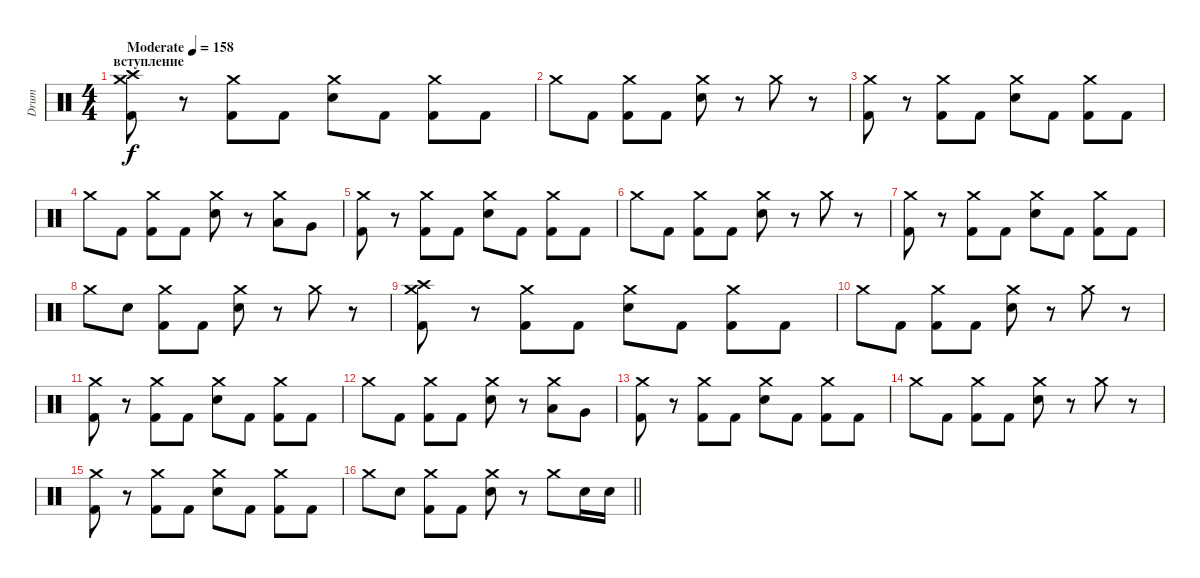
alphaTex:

\track ("Drum" "Drum") {instrument percussion}
\staff {score}
\articulation defaults
\ts (4 4)
\section ("" "вступление")
\tempo (158 "Moderate")
\clef neutral
\ks c
("Crash medium (hit)" "Crash high (hit)" "Kick (hit) 2").8{dy f} r.8 ("Crash medium (hit)" "Kick (hit) 2").8 "Kick (hit) 2".8 ("Crash medium (hit)" "Electric Snare (hit)").8 "Kick (hit) 2".8 ("Crash medium (hit)" "Kick (hit) 2").8 "Kick (hit) 2".8 |
"Crash medium (hit)".8 "Kick (hit) 2".8 ("Crash medium (hit)" "Kick (hit) 2").8 "Kick (hit) 2".8 ("Crash medium (hit)" "Electric Snare (hit)").8 r.8 "Crash medium (hit)".8 r.8 |
("Crash medium (hit)" "Kick (hit) 2").8 r.8 ("Crash medium (hit)" "Kick (hit) 2").8 "Kick (hit) 2".8 ("Crash medium (hit)" "Electric Snare (hit)").8 "Kick (hit) 2".8 ("Crash medium (hit)" "Kick (hit) 2").8 "Kick (hit) 2".8 |
"Crash medium (hit)".8 "Kick (hit) 2".8 ("Crash medium (hit)" "Kick (hit) 2").8 "Kick (hit) 2".8 ("Crash medium (hit)" "Electric Snare (hit)").8 r.8 ("Crash medium (hit)" "Low Tom (hit)").8 "Very Low Tom (hit)".8 |
("Crash medium (hit)" "Kick (hit) 2").8 r.8 ("Crash medium (hit)" "Kick (hit) 2").8 "Kick (hit) 2".8 ("Crash medium (hit)" "Electric Snare (hit)").8 "Kick (hit) 2".8 ("Crash medium (hit)" "Kick (hit) 2").8 "Kick (hit) 2".8 |
"Crash medium (hit)".8 "Kick (hit) 2".8 ("Crash medium (hit)" "Kick (hit) 2").8 "Kick (hit) 2".8 ("Crash medium (hit)" "Electric Snare (hit)").8 r.8 "Crash medium (hit)".8 r.8 |
("Crash medium (hit)" "Kick (hit) 2").8 r.8 ("Crash medium (hit)" "Kick (hit) 2").8 "Kick (hit) 2".8 ("Crash medium (hit)" "Electric Snare (hit)").8 "Kick (hit) 2".8 ("Crash medium (hit)" "Kick (hit) 2").8 "Kick (hit) 2".8 |
"Crash medium (hit)".8 "Electric Snare (hit)".8 ("Crash medium (hit)" "Kick (hit) 2").8 "Kick (hit) 2".8 ("Crash medium (hit)" "Electric Snare (hit)").8 r.8 "Crash medium (hit)".8 r.8 |
("Crash medium (hit)" "Crash high (hit)" "Kick (hit) 2").8 r.8 ("Crash medium (hit)" "Kick (hit) 2").8 "Kick (hit) 2".8 ("Crash medium (hit)" "Electric Snare (hit)").8 "Kick (hit) 2".8 ("Crash medium (hit)" "Kick (hit) 2").8 "Kick (hit) 2".8 |
"Crash medium (hit)".8 "Kick (hit) 2".8 ("Crash medium (hit)" "Kick (hit) 2").8 "Kick (hit) 2".8 ("Crash medium (hit)" "Electric Snare (hit)").8 r.8 "Crash medium (hit)".8 r.8 |
("Crash medium (hit)" "Kick (hit) 2").8 r.8 ("Crash medium (hit)" "Kick (hit) 2").8 "Kick (hit) 2".8 ("Crash medium (hit)" "Electric Snare (hit)").8 "Kick (hit) 2".8 ("Crash medium (hit)" "Kick (hit) 2").8 "Kick (hit) 2".8 |
"Crash medium (hit)".8 "Kick (hit) 2".8 ("Crash medium (hit)" "Kick (hit) 2").8 "Kick (hit) 2".8 ("Crash medium (hit)" "Electric Snare (hit)").8 r.8 ("Crash medium (hit)" "Low Tom (hit)").8 "Very Low Tom (hit)".8 |
("Crash medium (hit)" "Kick (hit) 2").8 r.8 ("Crash medium (hit)" "Kick (hit) 2").8 "Kick (hit) 2".8 ("Crash medium (hit)" "Electric Snare (hit)").8 "Kick (hit) 2".8 ("Crash medium (hit)" "Kick (hit) 2").8 "Kick (hit) 2".8 |
"Crash medium (hit)".8 "Kick (hit) 2".8 ("Crash medium (hit)" "Kick (hit) 2").8 "Kick (hit) 2".8 ("Crash medium (hit)" "Electric Snare (hit)").8 r.8 "Crash medium (hit)".8 r.8 |
("Crash medium (hit)" "Kick (hit) 2").8 r.8 ("Crash medium (hit)" "Kick (hit) 2").8 "Kick (hit) 2".8 ("Crash medium (hit)" "Electric Snare (hit)").8 "Kick (hit) 2".8 ("Crash medium (hit)" "Kick (hit) 2").8 "Kick (hit) 2".8 |
\barLineRight lightlight "Crash medium (hit)".8 "Electric Snare (hit)".8
("Crash medium (hit)" "Kick (hit) 2").8 "Kick (hit) 2".8 ("Crash medium (hit)" "Electric Snare (hit)").8 r.8 "Crash medium (hit)".8 "Electric Snare (hit)".16 "Electric Snare (hit)".16
